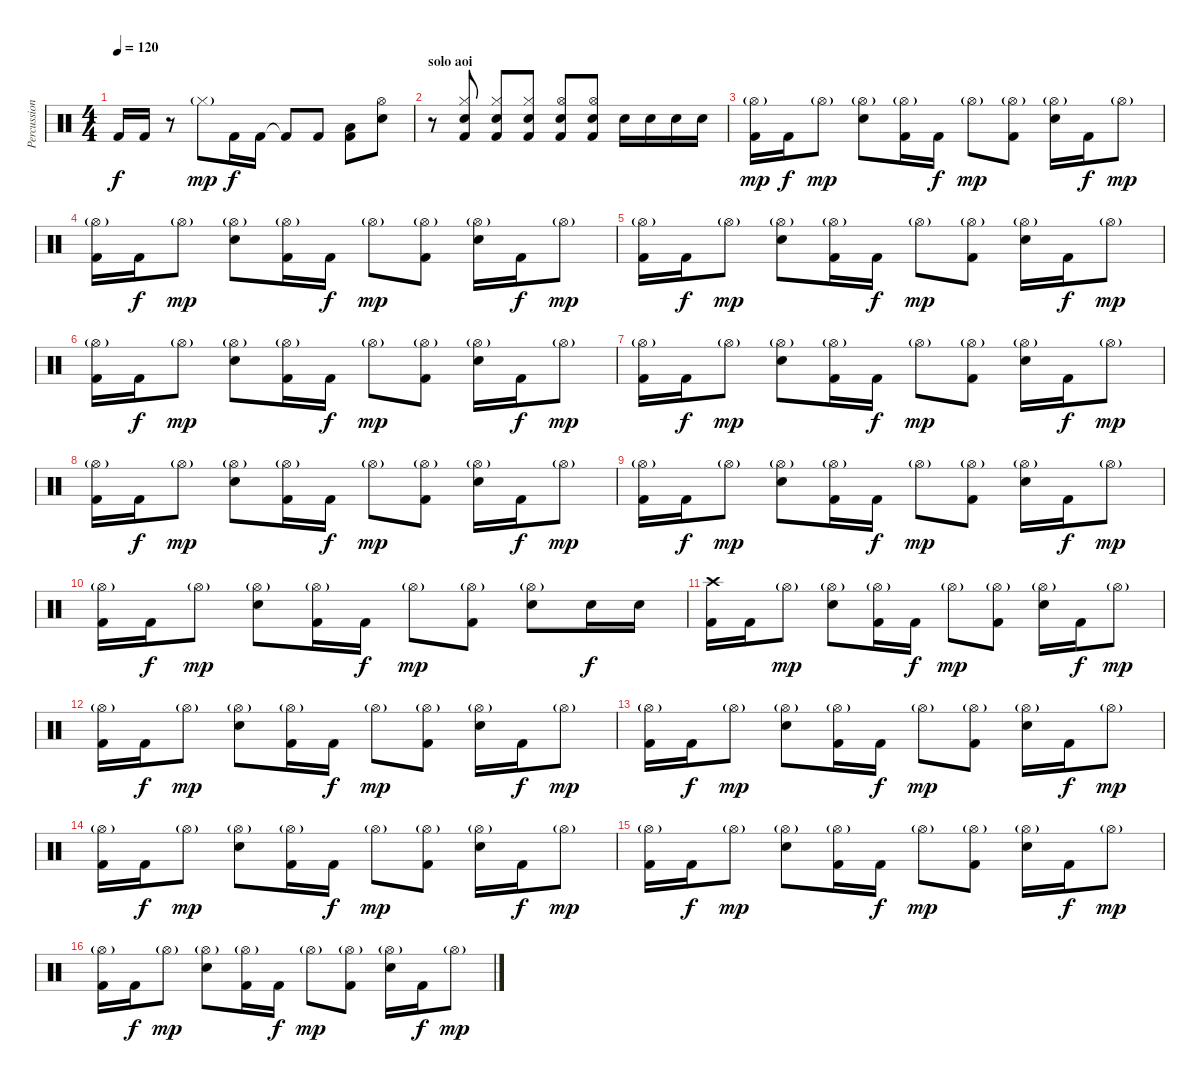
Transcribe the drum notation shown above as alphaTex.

\track ("Percussion" "Percussion") {instrument percussion}
\staff {score}
\articulation defaults
\ts (4 4)
\tempo 120
\clef neutral
\ks c "Kick (hit) 2".16{dy f} "Kick (hit) 2".16
r.8 "Hi-Hat (closed)"{g}.8{dy mp} "Kick (hit) 2".16{dy f} "Kick (hit) 2".16 "Kick (hit) 2"{t}.8 "Kick (hit) 2".8 ("Kick (hit) 2" "Low Tom (hit)").8 ("Hi-Hat (open)" "Snare (hit) 2").8 |
\section ("" "solo aoi")
r.8 ("Hi-Hat (closed)" "Snare (hit) 2" "Kick (hit) 2").8 ("Hi-Hat (closed)" "Snare (hit) 2" "Kick (hit) 2").8 ("Hi-Hat (closed)" "Snare (hit) 2" "Kick (hit) 2").8 ("Hi-Hat (open)" "Snare (hit) 2" "Kick (hit) 2").8 ("Hi-Hat (open)" "Snare (hit) 2" "Kick (hit) 2").8 "Snare (hit) 2".16 "Snare (hit) 2".16 "Snare (hit) 2".16 "Snare (hit) 2".16 |
("Hi-Hat (open)"{g} "Kick (hit) 2").16{dy mp} "Kick (hit) 2".16{dy f} "Hi-Hat (open)"{g}.8{dy mp} ("Hi-Hat (open)"{g} "Snare (hit) 2").8 ("Hi-Hat (open)"{g} "Kick (hit) 2").16 "Kick (hit) 2".16{dy f} "Hi-Hat (open)"{g}.8{dy mp} ("Hi-Hat (open)"{g} "Kick (hit) 2").8 ("Hi-Hat (open)"{g} "Snare (hit) 2").16 "Kick (hit) 2".16{dy f} "Hi-Hat (open)"{g}.8{dy mp} |
("Hi-Hat (open)"{g} "Kick (hit) 2").16 "Kick (hit) 2".16{dy f} "Hi-Hat (open)"{g}.8{dy mp} ("Hi-Hat (open)"{g} "Snare (hit) 2").8 ("Hi-Hat (open)"{g} "Kick (hit) 2").16 "Kick (hit) 2".16{dy f} "Hi-Hat (open)"{g}.8{dy mp} ("Hi-Hat (open)"{g} "Kick (hit) 2").8 ("Hi-Hat (open)"{g} "Snare (hit) 2").16 "Kick (hit) 2".16{dy f} "Hi-Hat (open)"{g}.8{dy mp} |
("Hi-Hat (open)"{g} "Kick (hit) 2").16 "Kick (hit) 2".16{dy f} "Hi-Hat (open)"{g}.8{dy mp} ("Hi-Hat (open)"{g} "Snare (hit) 2").8 ("Hi-Hat (open)"{g} "Kick (hit) 2").16 "Kick (hit) 2".16{dy f} "Hi-Hat (open)"{g}.8{dy mp} ("Hi-Hat (open)"{g} "Kick (hit) 2").8 ("Hi-Hat (open)"{g} "Snare (hit) 2").16 "Kick (hit) 2".16{dy f} "Hi-Hat (open)"{g}.8{dy mp} |
("Hi-Hat (open)"{g} "Kick (hit) 2").16 "Kick (hit) 2".16{dy f} "Hi-Hat (open)"{g}.8{dy mp} ("Hi-Hat (open)"{g} "Snare (hit) 2").8 ("Hi-Hat (open)"{g} "Kick (hit) 2").16 "Kick (hit) 2".16{dy f} "Hi-Hat (open)"{g}.8{dy mp} ("Hi-Hat (open)"{g} "Kick (hit) 2").8 ("Hi-Hat (open)"{g} "Snare (hit) 2").16 "Kick (hit) 2".16{dy f} "Hi-Hat (open)"{g}.8{dy mp} |
("Hi-Hat (open)"{g} "Kick (hit) 2").16 "Kick (hit) 2".16{dy f} "Hi-Hat (open)"{g}.8{dy mp} ("Hi-Hat (open)"{g} "Snare (hit) 2").8 ("Hi-Hat (open)"{g} "Kick (hit) 2").16 "Kick (hit) 2".16{dy f} "Hi-Hat (open)"{g}.8{dy mp} ("Hi-Hat (open)"{g} "Kick (hit) 2").8 ("Hi-Hat (open)"{g} "Snare (hit) 2").16 "Kick (hit) 2".16{dy f} "Hi-Hat (open)"{g}.8{dy mp} |
("Hi-Hat (open)"{g} "Kick (hit) 2").16 "Kick (hit) 2".16{dy f} "Hi-Hat (open)"{g}.8{dy mp} ("Hi-Hat (open)"{g} "Snare (hit) 2").8 ("Hi-Hat (open)"{g} "Kick (hit) 2").16 "Kick (hit) 2".16{dy f} "Hi-Hat (open)"{g}.8{dy mp} ("Hi-Hat (open)"{g} "Kick (hit) 2").8 ("Hi-Hat (open)"{g} "Snare (hit) 2").16 "Kick (hit) 2".16{dy f} "Hi-Hat (open)"{g}.8{dy mp} |
("Hi-Hat (open)"{g} "Kick (hit) 2").16 "Kick (hit) 2".16{dy f} "Hi-Hat (open)"{g}.8{dy mp} ("Hi-Hat (open)"{g} "Snare (hit) 2").8 ("Hi-Hat (open)"{g} "Kick (hit) 2").16 "Kick (hit) 2".16{dy f} "Hi-Hat (open)"{g}.8{dy mp} ("Hi-Hat (open)"{g} "Kick (hit) 2").8 ("Hi-Hat (open)"{g} "Snare (hit) 2").16 "Kick (hit) 2".16{dy f} "Hi-Hat (open)"{g}.8{dy mp} |
("Hi-Hat (open)"{g} "Kick (hit) 2").16 "Kick (hit) 2".16{dy f} "Hi-Hat (open)"{g}.8{dy mp} ("Hi-Hat (open)"{g} "Snare (hit) 2").8 ("Hi-Hat (open)"{g} "Kick (hit) 2").16 "Kick (hit) 2".16{dy f} "Hi-Hat (open)"{g}.8{dy mp} ("Hi-Hat (open)"{g} "Kick (hit) 2").8 ("Hi-Hat (open)"{g} "Snare (hit) 2").8 "Snare (hit) 2".16{dy f} "Snare (hit) 2".16 |
("Crash high (hit)" "Kick (hit) 2").16 "Kick (hit) 2".16 "Hi-Hat (open)"{g}.8{dy mp} ("Hi-Hat (open)"{g} "Snare (hit) 2").8 ("Hi-Hat (open)"{g} "Kick (hit) 2").16 "Kick (hit) 2".16{dy f} "Hi-Hat (open)"{g}.8{dy mp} ("Hi-Hat (open)"{g} "Kick (hit) 2").8 ("Hi-Hat (open)"{g} "Snare (hit) 2").16 "Kick (hit) 2".16{dy f} "Hi-Hat (open)"{g}.8{dy mp} |
("Hi-Hat (open)"{g} "Kick (hit) 2").16 "Kick (hit) 2".16{dy f} "Hi-Hat (open)"{g}.8{dy mp} ("Hi-Hat (open)"{g} "Snare (hit) 2").8 ("Hi-Hat (open)"{g} "Kick (hit) 2").16 "Kick (hit) 2".16{dy f} "Hi-Hat (open)"{g}.8{dy mp} ("Hi-Hat (open)"{g} "Kick (hit) 2").8 ("Hi-Hat (open)"{g} "Snare (hit) 2").16 "Kick (hit) 2".16{dy f} "Hi-Hat (open)"{g}.8{dy mp} |
("Hi-Hat (open)"{g} "Kick (hit) 2").16 "Kick (hit) 2".16{dy f} "Hi-Hat (open)"{g}.8{dy mp} ("Hi-Hat (open)"{g} "Snare (hit) 2").8 ("Hi-Hat (open)"{g} "Kick (hit) 2").16 "Kick (hit) 2".16{dy f} "Hi-Hat (open)"{g}.8{dy mp} ("Hi-Hat (open)"{g} "Kick (hit) 2").8 ("Hi-Hat (open)"{g} "Snare (hit) 2").16 "Kick (hit) 2".16{dy f} "Hi-Hat (open)"{g}.8{dy mp} |
("Hi-Hat (open)"{g} "Kick (hit) 2").16 "Kick (hit) 2".16{dy f} "Hi-Hat (open)"{g}.8{dy mp} ("Hi-Hat (open)"{g} "Snare (hit) 2").8 ("Hi-Hat (open)"{g} "Kick (hit) 2").16 "Kick (hit) 2".16{dy f} "Hi-Hat (open)"{g}.8{dy mp} ("Hi-Hat (open)"{g} "Kick (hit) 2").8 ("Hi-Hat (open)"{g} "Snare (hit) 2").16 "Kick (hit) 2".16{dy f} "Hi-Hat (open)"{g}.8{dy mp} |
("Hi-Hat (open)"{g} "Kick (hit) 2").16 "Kick (hit) 2".16{dy f} "Hi-Hat (open)"{g}.8{dy mp} ("Hi-Hat (open)"{g} "Snare (hit) 2").8 ("Hi-Hat (open)"{g} "Kick (hit) 2").16 "Kick (hit) 2".16{dy f} "Hi-Hat (open)"{g}.8{dy mp} ("Hi-Hat (open)"{g} "Kick (hit) 2").8 ("Hi-Hat (open)"{g} "Snare (hit) 2").16 "Kick (hit) 2".16{dy f} "Hi-Hat (open)"{g}.8{dy mp} |
("Hi-Hat (open)"{g} "Kick (hit) 2").16 "Kick (hit) 2".16{dy f} "Hi-Hat (open)"{g}.8{dy mp} ("Hi-Hat (open)"{g} "Snare (hit) 2").8 ("Hi-Hat (open)"{g} "Kick (hit) 2").16 "Kick (hit) 2".16{dy f} "Hi-Hat (open)"{g}.8{dy mp} ("Hi-Hat (open)"{g} "Kick (hit) 2").8 ("Hi-Hat (open)"{g} "Snare (hit) 2").16 "Kick (hit) 2".16{dy f} "Hi-Hat (open)"{g}.8{dy mp}
